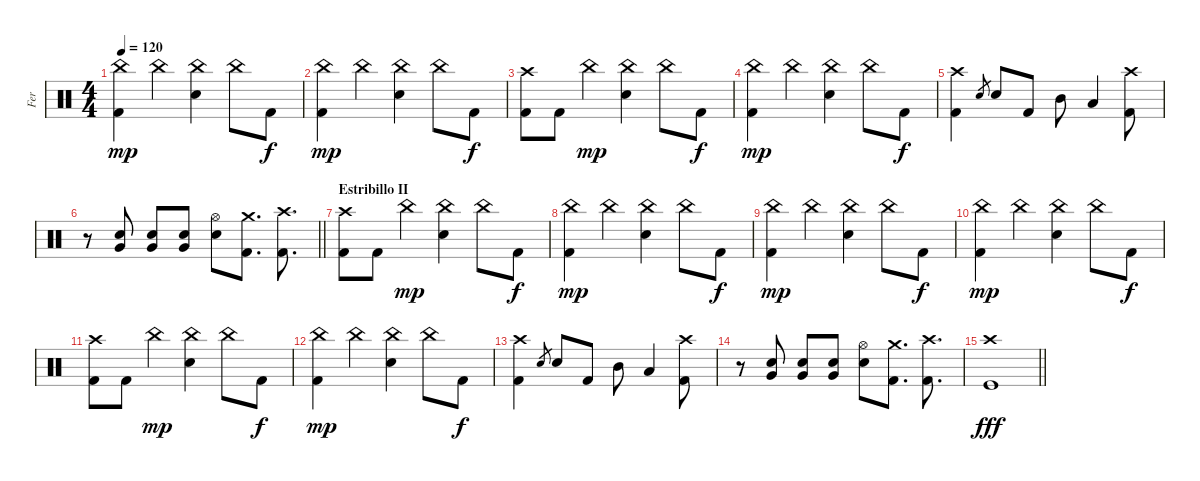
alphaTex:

\track ("Fer" "Fer") {instrument percussion}
\staff {score}
\articulation defaults
\ts (4 4)
\tempo 120
\clef neutral
\ks c
("China (hit)" "Kick (hit) 2").4{dy mp} "China (hit)".4 ("China (hit)" "Snare (hit) 2").4 "China (hit)".8 "Kick (hit) 2".8{dy f} |
("China (hit)" "Kick (hit) 2").4{dy mp} "China (hit)".4 ("China (hit)" "Snare (hit) 2").4 "China (hit)".8 "Kick (hit) 2".8{dy f} |
("Crash high (hit)" "Kick (hit) 2").8 "Kick (hit) 2".8 "China (hit)".4{dy mp} ("China (hit)" "Snare (hit) 2").4 "China (hit)".8 "Kick (hit) 2".8{dy f} |
("China (hit)" "Kick (hit) 2").4{dy mp} "China (hit)".4 ("China (hit)" "Snare (hit) 2").4 "China (hit)".8 "Kick (hit) 2".8{dy f} |
("Crash high (hit)" "Kick (hit) 2").4 "Snare (hit) 2".8{gr} "Snare (hit) 2".8 "Kick (hit) 2".8 "Mid Tom (hit)".8 "Low Tom (hit)".4 ("Crash high (hit)" "Kick (hit) 2").8 |
\barLineRight lightlight
r.8 ("Snare (hit) 2" "Very Low Tom (hit)").8 ("Snare (hit) 2" "Very Low Tom (hit)").8 ("Snare (hit) 2" "Very Low Tom (hit)").8 ("Hi-Hat (open)" "Snare (hit) 2").8 ("Crash medium (hit)" "Kick (hit) 2").8{d} ("Crash high (hit)" "Kick (hit) 2").8{d} |
\section ("" "Estribillo II")
("Crash high (hit)" "Kick (hit) 2").8 "Kick (hit) 2".8 "China (hit)".4{dy mp} ("China (hit)" "Snare (hit) 2").4 "China (hit)".8 "Kick (hit) 2".8{dy f} |
("China (hit)" "Kick (hit) 2").4{dy mp} "China (hit)".4 ("China (hit)" "Snare (hit) 2").4 "China (hit)".8 "Kick (hit) 2".8{dy f} |
("China (hit)" "Kick (hit) 2").4{dy mp} "China (hit)".4 ("China (hit)" "Snare (hit) 2").4 "China (hit)".8 "Kick (hit) 2".8{dy f} |
("China (hit)" "Kick (hit) 2").4{dy mp} "China (hit)".4 ("China (hit)" "Snare (hit) 2").4 "China (hit)".8 "Kick (hit) 2".8{dy f} |
("Crash high (hit)" "Kick (hit) 2").8 "Kick (hit) 2".8 "China (hit)".4{dy mp} ("China (hit)" "Snare (hit) 2").4 "China (hit)".8 "Kick (hit) 2".8{dy f} |
("China (hit)" "Kick (hit) 2").4{dy mp} "China (hit)".4 ("China (hit)" "Snare (hit) 2").4 "China (hit)".8 "Kick (hit) 2".8{dy f} |
("Crash high (hit)" "Kick (hit) 2").4 "Snare (hit) 2".8{gr} "Snare (hit) 2".8 "Kick (hit) 2".8 "Mid Tom (hit)".8 "Low Tom (hit)".4 ("Crash high (hit)" "Kick (hit) 2").8 |
r.8 ("Snare (hit) 2" "Very Low Tom (hit)").8 ("Snare (hit) 2" "Very Low Tom (hit)").8 ("Snare (hit) 2" "Very Low Tom (hit)").8 ("Hi-Hat (open)" "Snare (hit) 2").8 ("Crash medium (hit)" "Kick (hit) 2").8{d} ("Crash high (hit)" "Kick (hit) 2").8{d} |
\barLineRight lightlight
("Crash high (hit)" "Kick (hit)").1{dy fff}
